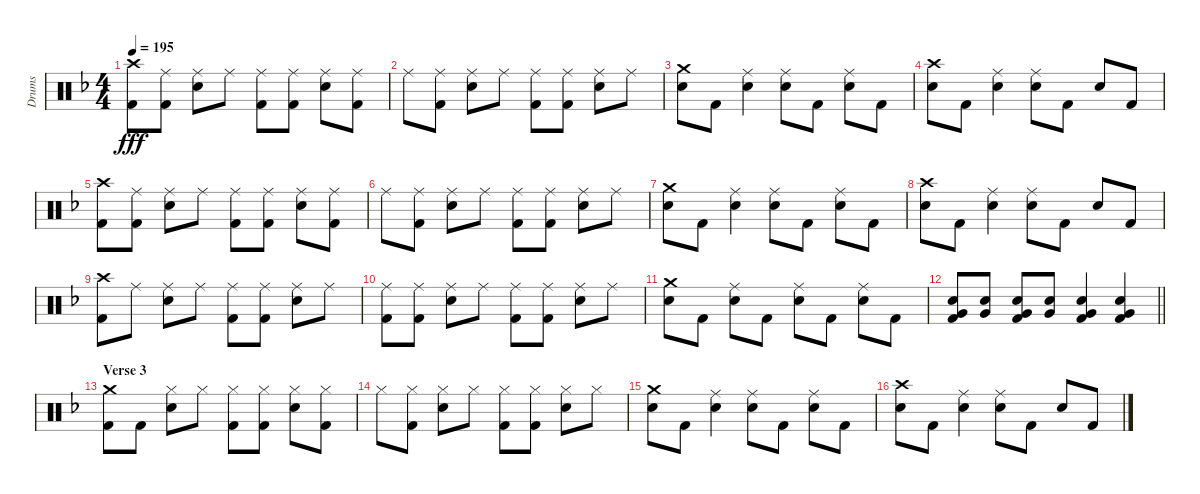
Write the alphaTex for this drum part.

\track ("Drums" "Drums") {instrument percussion}
\staff {score}
\articulation defaults
\ts (4 4)
\tempo 195
\clef neutral
\ks f
("Crash high (hit)" "Kick (hit) 2").8{dy fff} ("Ride (middle)" "Kick (hit) 2").8 ("Ride (middle)" "Electric Snare (hit)").8 "Ride (middle)".8 ("Ride (middle)" "Kick (hit) 2").8 ("Ride (middle)" "Kick (hit) 2").8 ("Ride (middle)" "Electric Snare (hit)").8 ("Ride (middle)" "Kick (hit) 2").8 |
"Ride (middle)".8 ("Ride (middle)" "Kick (hit) 2").8 ("Ride (middle)" "Electric Snare (hit)").8 "Ride (middle)".8 ("Ride (middle)" "Kick (hit) 2").8 ("Ride (middle)" "Kick (hit) 2").8 ("Ride (middle)" "Electric Snare (hit)").8 "Ride (middle)".8 |
("Crash medium (hit)" "Electric Snare (hit)").8 "Kick (hit) 2".8 ("Ride (middle)" "Electric Snare (hit)").4 ("Ride (middle)" "Electric Snare (hit)").8 "Kick (hit) 2".8 ("Ride (middle)" "Electric Snare (hit)").8 "Kick (hit) 2".8 |
("Crash high (hit)" "Electric Snare (hit)").8 "Kick (hit) 2".8 ("Ride (middle)" "Electric Snare (hit)").4 ("Ride (middle)" "Electric Snare (hit)").8 "Kick (hit) 2".8 "Electric Snare (hit)".8 "Kick (hit) 2".8 |
("Crash high (hit)" "Kick (hit) 2").8 ("Ride (middle)" "Kick (hit) 2").8 ("Ride (middle)" "Electric Snare (hit)").8 "Ride (middle)".8 ("Ride (middle)" "Kick (hit) 2").8 ("Ride (middle)" "Kick (hit) 2").8 ("Ride (middle)" "Electric Snare (hit)").8 ("Ride (middle)" "Kick (hit) 2").8 |
"Ride (middle)".8 ("Ride (middle)" "Kick (hit) 2").8 ("Ride (middle)" "Electric Snare (hit)").8 "Ride (middle)".8 ("Ride (middle)" "Kick (hit) 2").8 ("Ride (middle)" "Kick (hit) 2").8 ("Ride (middle)" "Electric Snare (hit)").8 "Ride (middle)".8 |
("Crash medium (hit)" "Electric Snare (hit)").8 "Kick (hit) 2".8 ("Ride (middle)" "Electric Snare (hit)").4 ("Ride (middle)" "Electric Snare (hit)").8 "Kick (hit) 2".8 ("Ride (middle)" "Electric Snare (hit)").8 "Kick (hit) 2".8 |
("Crash high (hit)" "Electric Snare (hit)").8 "Kick (hit) 2".8 ("Ride (middle)" "Electric Snare (hit)").4 ("Ride (middle)" "Electric Snare (hit)").8 "Kick (hit) 2".8 "Electric Snare (hit)".8 "Kick (hit) 2".8 |
("Crash high (hit)" "Kick (hit) 2").8 "Ride (middle)".8 ("Ride (middle)" "Electric Snare (hit)").8 "Ride (middle)".8 ("Ride (middle)" "Kick (hit) 2").8 ("Ride (middle)" "Kick (hit) 2").8 ("Ride (middle)" "Electric Snare (hit)").8 "Ride (middle)".8 |
("Ride (middle)" "Kick (hit) 2").8 ("Ride (middle)" "Kick (hit) 2").8 ("Ride (middle)" "Electric Snare (hit)").8 "Ride (middle)".8 ("Ride (middle)" "Kick (hit) 2").8 ("Ride (middle)" "Kick (hit) 2").8 ("Ride (middle)" "Electric Snare (hit)").8 "Ride (middle)".8 |
("Crash medium (hit)" "Electric Snare (hit)").8 "Kick (hit) 2".8 ("Ride (middle)" "Electric Snare (hit)").8 "Kick (hit) 2".8 ("Ride (middle)" "Electric Snare (hit)").8 "Kick (hit) 2".8 ("Ride (middle)" "Electric Snare (hit)").8 "Kick (hit) 2".8 |
\barLineRight lightlight
("Very Low Tom (hit)" "Electric Snare (hit)" "Kick (hit) 2").8 ("Very Low Tom (hit)" "Electric Snare (hit)").8 ("Very Low Tom (hit)" "Electric Snare (hit)" "Kick (hit) 2").8 ("Very Low Tom (hit)" "Electric Snare (hit)").8 ("Electric Snare (hit)" "Very Low Tom (hit)" "Kick (hit) 2").4 ("Electric Snare (hit)" "Very Low Tom (hit)" "Kick (hit) 2").4 |
\section ("" "Verse 3")
("Crash medium (hit)" "Kick (hit) 2").8 "Kick (hit) 2".8 ("Hi-Hat (closed)" "Electric Snare (hit)").8 "Hi-Hat (closed)".8 ("Hi-Hat (closed)" "Kick (hit) 2").8 ("Hi-Hat (closed)" "Kick (hit) 2").8 ("Hi-Hat (closed)" "Electric Snare (hit)").8 ("Hi-Hat (closed)" "Kick (hit) 2").8 |
"Hi-Hat (closed)".8 ("Hi-Hat (closed)" "Kick (hit) 2").8 ("Hi-Hat (closed)" "Electric Snare (hit)").8 "Hi-Hat (closed)".8 ("Hi-Hat (closed)" "Kick (hit) 2").8 ("Hi-Hat (closed)" "Kick (hit) 2").8 ("Hi-Hat (closed)" "Electric Snare (hit)").8 "Hi-Hat (closed)".8 |
("Crash medium (hit)" "Electric Snare (hit)").8 "Kick (hit) 2".8 ("Ride (middle)" "Electric Snare (hit)").4 ("Ride (middle)" "Electric Snare (hit)").8 "Kick (hit) 2".8 ("Ride (middle)" "Electric Snare (hit)").8 "Kick (hit) 2".8 |
("Crash high (hit)" "Electric Snare (hit)").8 "Kick (hit) 2".8 ("Ride (middle)" "Electric Snare (hit)").4 ("Ride (middle)" "Electric Snare (hit)").8 "Kick (hit) 2".8 "Electric Snare (hit)".8 "Kick (hit) 2".8
